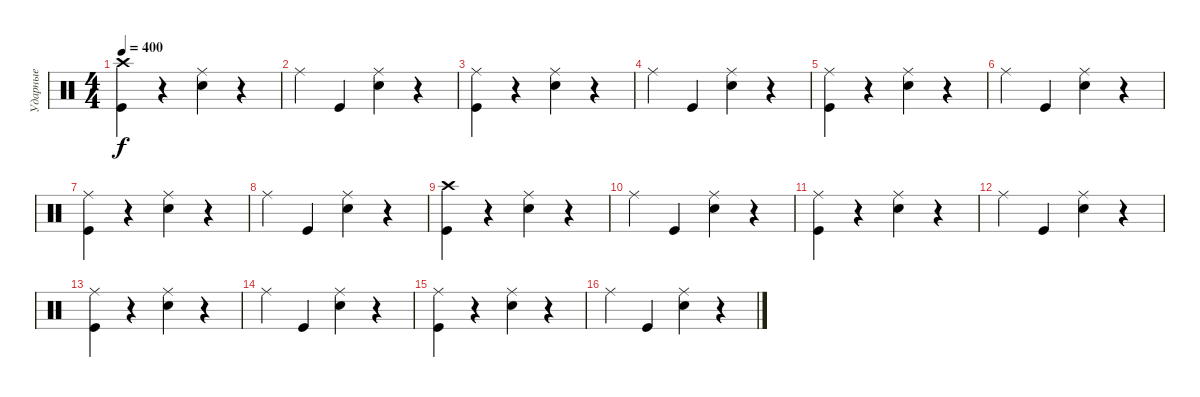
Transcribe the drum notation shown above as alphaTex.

\track ("Ударные" "Ударные") {instrument percussion}
\staff {score}
\articulation defaults
\ts (4 4)
\tempo 400
\clef neutral
\ks c
("Kick (hit)" "Crash high (hit)").4{dy f} r.4 ("Snare (hit) 2" "Ride (middle)").4 r.4 |
"Ride (middle)".4 "Kick (hit)".4 ("Snare (hit) 2" "Ride (middle)").4 r.4 |
("Kick (hit)" "Ride (middle)").4 r.4 ("Snare (hit) 2" "Ride (middle)").4 r.4 |
"Ride (middle)".4 "Kick (hit)".4 ("Snare (hit) 2" "Ride (middle)").4 r.4 |
("Kick (hit)" "Ride (middle)").4 r.4 ("Snare (hit) 2" "Ride (middle)").4 r.4 |
"Ride (middle)".4 "Kick (hit)".4 ("Snare (hit) 2" "Ride (middle)").4 r.4 |
("Kick (hit)" "Ride (middle)").4 r.4 ("Snare (hit) 2" "Ride (middle)").4 r.4 |
"Ride (middle)".4 "Kick (hit)".4 ("Snare (hit) 2" "Ride (middle)").4 r.4 |
("Kick (hit)" "Crash high (hit)").4 r.4 ("Snare (hit) 2" "Ride (middle)").4 r.4 |
"Ride (middle)".4 "Kick (hit)".4 ("Snare (hit) 2" "Ride (middle)").4 r.4 |
("Kick (hit)" "Ride (middle)").4 r.4 ("Snare (hit) 2" "Ride (middle)").4 r.4 |
"Ride (middle)".4 "Kick (hit)".4 ("Snare (hit) 2" "Ride (middle)").4 r.4 |
("Kick (hit)" "Ride (middle)").4 r.4 ("Snare (hit) 2" "Ride (middle)").4 r.4 |
"Ride (middle)".4 "Kick (hit)".4 ("Snare (hit) 2" "Ride (middle)").4 r.4 |
("Kick (hit)" "Ride (middle)").4 r.4 ("Snare (hit) 2" "Ride (middle)").4 r.4 |
"Ride (middle)".4 "Kick (hit)".4 ("Snare (hit) 2" "Ride (middle)").4 r.4
